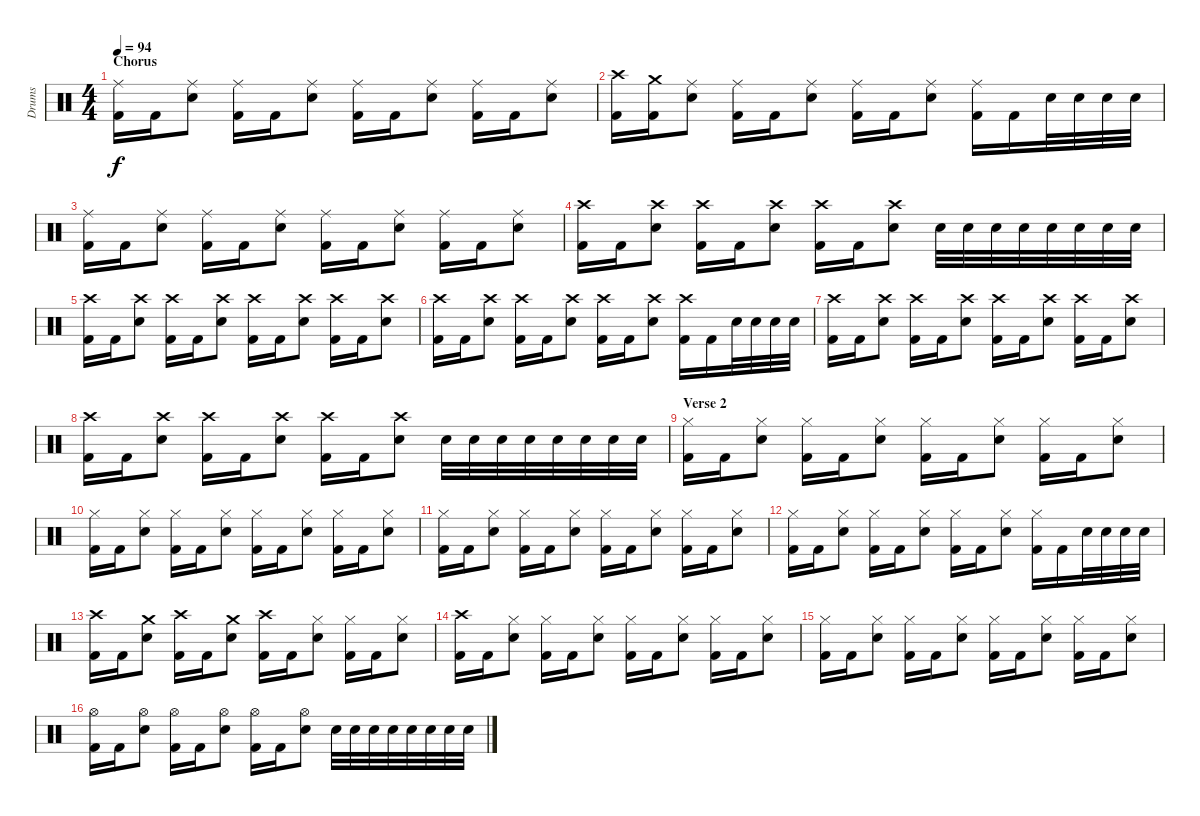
\track ("Drums" "Drums") {instrument percussion}
\staff {score}
\articulation defaults
\ts (4 4)
\section ("" "Chorus")
\tempo 94
\clef neutral
\ks c
("Ride (middle)" "Kick (hit) 2").16{dy f} "Kick (hit) 2".16 ("Ride (middle)" "Electric Snare (hit)").8 ("Ride (middle)" "Kick (hit) 2").16 "Kick (hit) 2".16 ("Ride (middle)" "Electric Snare (hit)").8 ("Ride (middle)" "Kick (hit) 2").16 "Kick (hit) 2".16 ("Ride (middle)" "Electric Snare (hit)").8 ("Ride (middle)" "Kick (hit) 2").16 "Kick (hit) 2".16 ("Ride (middle)" "Electric Snare (hit)").8 |
("Crash high (hit)" "Kick (hit) 2").16 ("Crash medium (hit)" "Kick (hit) 2").16 ("Ride (middle)" "Electric Snare (hit)").8 ("Ride (middle)" "Kick (hit) 2").16 "Kick (hit) 2".16 ("Ride (middle)" "Electric Snare (hit)").8 ("Ride (middle)" "Kick (hit) 2").16 "Kick (hit) 2".16 ("Ride (middle)" "Electric Snare (hit)").8 ("Ride (middle)" "Kick (hit) 2").16 "Kick (hit) 2".16 "Electric Snare (hit)".32 "Electric Snare (hit)".32 "Electric Snare (hit)".32 "Electric Snare (hit)".32 |
("Ride (middle)" "Kick (hit) 2").16 "Kick (hit) 2".16 ("Ride (middle)" "Electric Snare (hit)").8 ("Ride (middle)" "Kick (hit) 2").16 "Kick (hit) 2".16 ("Ride (middle)" "Electric Snare (hit)").8 ("Ride (middle)" "Kick (hit) 2").16 "Kick (hit) 2".16 ("Ride (middle)" "Electric Snare (hit)").8 ("Ride (middle)" "Kick (hit) 2").16 "Kick (hit) 2".16 ("Ride (middle)" "Electric Snare (hit)").8 |
("Crash high (hit)" "Kick (hit) 2").16 "Kick (hit) 2".16 ("Crash high (hit)" "Electric Snare (hit)").8 ("Crash high (hit)" "Kick (hit) 2").16 "Kick (hit) 2".16 ("Crash high (hit)" "Electric Snare (hit)").8 ("Crash high (hit)" "Kick (hit) 2").16 "Kick (hit) 2".16 ("Crash high (hit)" "Electric Snare (hit)").8 "Electric Snare (hit)".32 "Electric Snare (hit)".32 "Electric Snare (hit)".32 "Electric Snare (hit)".32 "Electric Snare (hit)".32 "Electric Snare (hit)".32 "Electric Snare (hit)".32 "Electric Snare (hit)".32 |
("Crash high (hit)" "Kick (hit) 2").16 "Kick (hit) 2".16 ("Crash high (hit)" "Electric Snare (hit)").8 ("Crash high (hit)" "Kick (hit) 2").16 "Kick (hit) 2".16 ("Crash high (hit)" "Electric Snare (hit)").8 ("Crash high (hit)" "Kick (hit) 2").16 "Kick (hit) 2".16 ("Crash high (hit)" "Electric Snare (hit)").8 ("Crash high (hit)" "Kick (hit) 2").16 "Kick (hit) 2".16 ("Crash high (hit)" "Electric Snare (hit)").8 |
("Crash high (hit)" "Kick (hit) 2").16 "Kick (hit) 2".16 ("Crash high (hit)" "Electric Snare (hit)").8 ("Crash high (hit)" "Kick (hit) 2").16 "Kick (hit) 2".16 ("Crash high (hit)" "Electric Snare (hit)").8 ("Crash high (hit)" "Kick (hit) 2").16 "Kick (hit) 2".16 ("Crash high (hit)" "Electric Snare (hit)").8 ("Crash high (hit)" "Kick (hit) 2").16 "Kick (hit) 2".16 "Electric Snare (hit)".32 "Electric Snare (hit)".32 "Electric Snare (hit)".32 "Electric Snare (hit)".32 |
("Crash high (hit)" "Kick (hit) 2").16 "Kick (hit) 2".16 ("Crash high (hit)" "Electric Snare (hit)").8 ("Crash high (hit)" "Kick (hit) 2").16 "Kick (hit) 2".16 ("Crash high (hit)" "Electric Snare (hit)").8 ("Crash high (hit)" "Kick (hit) 2").16 "Kick (hit) 2".16 ("Crash high (hit)" "Electric Snare (hit)").8 ("Crash high (hit)" "Kick (hit) 2").16 "Kick (hit) 2".16 ("Crash high (hit)" "Electric Snare (hit)").8 |
("Crash high (hit)" "Kick (hit) 2").16 "Kick (hit) 2".16 ("Crash high (hit)" "Electric Snare (hit)").8 ("Crash high (hit)" "Kick (hit) 2").16 "Kick (hit) 2".16 ("Crash high (hit)" "Electric Snare (hit)").8 ("Crash high (hit)" "Kick (hit) 2").16 "Kick (hit) 2".16 ("Crash high (hit)" "Electric Snare (hit)").8 "Electric Snare (hit)".32 "Electric Snare (hit)".32 "Electric Snare (hit)".32 "Electric Snare (hit)".32 "Electric Snare (hit)".32 "Electric Snare (hit)".32 "Electric Snare (hit)".32 "Electric Snare (hit)".32 |
\section ("" "Verse 2")
("Hi-Hat (closed)" "Kick (hit) 2").16 "Kick (hit) 2".16 ("Hi-Hat (closed)" "Electric Snare (hit)").8 ("Hi-Hat (closed)" "Kick (hit) 2").16 "Kick (hit) 2".16 ("Hi-Hat (closed)" "Electric Snare (hit)").8 ("Hi-Hat (closed)" "Kick (hit) 2").16 "Kick (hit) 2".16 ("Hi-Hat (closed)" "Electric Snare (hit)").8 ("Hi-Hat (closed)" "Kick (hit) 2").16 "Kick (hit) 2".16 ("Hi-Hat (closed)" "Electric Snare (hit)").8 |
("Hi-Hat (closed)" "Kick (hit) 2").16 "Kick (hit) 2".16 ("Hi-Hat (closed)" "Electric Snare (hit)").8 ("Hi-Hat (closed)" "Kick (hit) 2").16 "Kick (hit) 2".16 ("Hi-Hat (closed)" "Electric Snare (hit)").8 ("Hi-Hat (closed)" "Kick (hit) 2").16 "Kick (hit) 2".16 ("Hi-Hat (closed)" "Electric Snare (hit)").8 ("Hi-Hat (closed)" "Kick (hit) 2").16 "Kick (hit) 2".16 ("Hi-Hat (closed)" "Electric Snare (hit)").8 |
("Hi-Hat (closed)" "Kick (hit) 2").16 "Kick (hit) 2".16 ("Hi-Hat (closed)" "Electric Snare (hit)").8 ("Hi-Hat (closed)" "Kick (hit) 2").16 "Kick (hit) 2".16 ("Hi-Hat (closed)" "Electric Snare (hit)").8 ("Hi-Hat (closed)" "Kick (hit) 2").16 "Kick (hit) 2".16 ("Hi-Hat (closed)" "Electric Snare (hit)").8 ("Hi-Hat (closed)" "Kick (hit) 2").16 "Kick (hit) 2".16 ("Hi-Hat (closed)" "Electric Snare (hit)").8 |
("Hi-Hat (closed)" "Kick (hit) 2").16 "Kick (hit) 2".16 ("Hi-Hat (closed)" "Electric Snare (hit)").8 ("Hi-Hat (closed)" "Kick (hit) 2").16 "Kick (hit) 2".16 ("Hi-Hat (closed)" "Electric Snare (hit)").8 ("Hi-Hat (closed)" "Kick (hit) 2").16 "Kick (hit) 2".16 ("Hi-Hat (closed)" "Electric Snare (hit)").8 ("Hi-Hat (closed)" "Kick (hit) 2").16 "Kick (hit) 2".16 "Electric Snare (hit)".32 "Electric Snare (hit)".32 "Electric Snare (hit)".32 "Electric Snare (hit)".32 |
("Crash high (hit)" "Kick (hit) 2").16 "Kick (hit) 2".16 ("Crash medium (hit)" "Electric Snare (hit)").8 ("Crash high (hit)" "Kick (hit) 2").16 "Kick (hit) 2".16 ("Crash medium (hit)" "Electric Snare (hit)").8 ("Crash high (hit)" "Kick (hit) 2").16 "Kick (hit) 2".16 ("Hi-Hat (closed)" "Electric Snare (hit)").8 ("Hi-Hat (closed)" "Kick (hit) 2").16 "Kick (hit) 2".16 ("Hi-Hat (closed)" "Electric Snare (hit)").8 |
("Crash high (hit)" "Kick (hit) 2").16 "Kick (hit) 2".16 ("Hi-Hat (closed)" "Electric Snare (hit)").8 ("Hi-Hat (closed)" "Kick (hit) 2").16 "Kick (hit) 2".16 ("Hi-Hat (closed)" "Electric Snare (hit)").8 ("Hi-Hat (closed)" "Kick (hit) 2").16 "Kick (hit) 2".16 ("Hi-Hat (closed)" "Electric Snare (hit)").8 ("Hi-Hat (closed)" "Kick (hit) 2").16 "Kick (hit) 2".16 ("Hi-Hat (closed)" "Electric Snare (hit)").8 |
("Hi-Hat (closed)" "Kick (hit) 2").16 "Kick (hit) 2".16 ("Hi-Hat (closed)" "Electric Snare (hit)").8 ("Hi-Hat (closed)" "Kick (hit) 2").16 "Kick (hit) 2".16 ("Hi-Hat (closed)" "Electric Snare (hit)").8 ("Hi-Hat (closed)" "Kick (hit) 2").16 "Kick (hit) 2".16 ("Hi-Hat (closed)" "Electric Snare (hit)").8 ("Hi-Hat (closed)" "Kick (hit) 2").16 "Kick (hit) 2".16 ("Hi-Hat (closed)" "Electric Snare (hit)").8 |
("Hi-Hat (open)" "Kick (hit) 2").16 "Kick (hit) 2".16 ("Hi-Hat (open)" "Electric Snare (hit)").8 ("Hi-Hat (open)" "Kick (hit) 2").16 "Kick (hit) 2".16 ("Hi-Hat (open)" "Electric Snare (hit)").8 ("Hi-Hat (open)" "Kick (hit) 2").16 "Kick (hit) 2".16 ("Hi-Hat (open)" "Electric Snare (hit)").8 "Electric Snare (hit)".32 "Electric Snare (hit)".32 "Electric Snare (hit)".32 "Electric Snare (hit)".32 "Electric Snare (hit)".32 "Electric Snare (hit)".32 "Electric Snare (hit)".32 "Electric Snare (hit)".32
